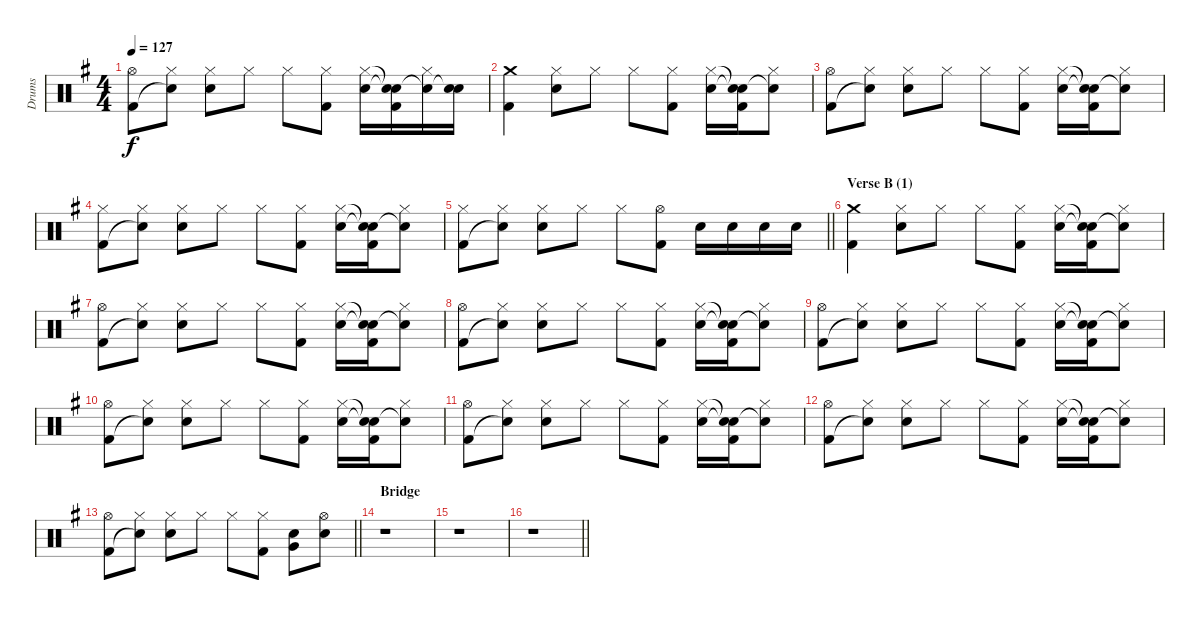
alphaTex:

\track ("Drums" "Drums") {instrument percussion}
\staff {score}
\articulation defaults
\ts (4 4)
\tempo 127
\clef neutral
\ks eminor
("Hi-Hat (open)" "Kick (hit) 2").8{dy f} ("Hi-Hat (closed)" "Snare (hit)"{t}).8 ("Hi-Hat (closed)" "Electric Snare (hit)").8 "Hi-Hat (closed)".8 "Hi-Hat (closed)".8 ("Hi-Hat (closed)" "Kick (hit) 2").8 ("Hi-Hat (closed)" "Electric Snare (hit)").16 ("Snare (hit)"{t} "Snare (hit)"{t} "Kick (hit) 2").16 ("Hi-Hat (closed)" "Snare (hit)"{t}).16 ("Electric Snare (hit)" "Snare (hit)"{t}).16 |
("Crash medium (hit)" "Kick (hit) 2").4 ("Hi-Hat (closed)" "Electric Snare (hit)").8 "Hi-Hat (closed)".8 "Hi-Hat (closed)".8 ("Hi-Hat (closed)" "Kick (hit) 2").8 ("Hi-Hat (closed)" "Electric Snare (hit)").16 ("Snare (hit)"{t} "Snare (hit)"{t} "Kick (hit) 2").16 ("Hi-Hat (closed)" "Snare (hit)"{t}).8 |
("Hi-Hat (open)" "Kick (hit) 2").8 ("Hi-Hat (closed)" "Snare (hit)"{t}).8 ("Hi-Hat (closed)" "Electric Snare (hit)").8 "Hi-Hat (closed)".8 "Hi-Hat (closed)".8 ("Hi-Hat (closed)" "Kick (hit) 2").8 ("Hi-Hat (closed)" "Electric Snare (hit)").16 ("Snare (hit)"{t} "Snare (hit)"{t} "Kick (hit) 2").16 ("Hi-Hat (closed)" "Snare (hit)"{t}).8 |
("Hi-Hat (closed)" "Kick (hit) 2").8 ("Hi-Hat (closed)" "Snare (hit)"{t}).8 ("Hi-Hat (closed)" "Electric Snare (hit)").8 "Hi-Hat (closed)".8 "Hi-Hat (closed)".8 ("Hi-Hat (closed)" "Kick (hit) 2").8 ("Hi-Hat (closed)" "Electric Snare (hit)").16 ("Snare (hit)"{t} "Snare (hit)"{t} "Kick (hit) 2").16 ("Hi-Hat (closed)" "Snare (hit)"{t}).8 |
\barLineRight lightlight
("Hi-Hat (closed)" "Kick (hit) 2").8 ("Hi-Hat (closed)" "Snare (hit)"{t}).8 ("Hi-Hat (closed)" "Electric Snare (hit)").8 "Hi-Hat (closed)".8 "Hi-Hat (closed)".8 ("Hi-Hat (open)" "Kick (hit) 2").8 "Electric Snare (hit)".16 "Electric Snare (hit)".16 "Electric Snare (hit)".16 "Electric Snare (hit)".16 |
\section ("" "Verse B (1)")
("Crash medium (hit)" "Kick (hit) 2").4 ("Hi-Hat (closed)" "Electric Snare (hit)").8 "Hi-Hat (closed)".8 "Hi-Hat (closed)".8 ("Hi-Hat (closed)" "Kick (hit) 2").8 ("Hi-Hat (closed)" "Electric Snare (hit)").16 ("Snare (hit)"{t} "Snare (hit)"{t} "Kick (hit) 2").16 ("Hi-Hat (closed)" "Snare (hit)"{t}).8 |
("Hi-Hat (open)" "Kick (hit) 2").8 ("Hi-Hat (closed)" "Snare (hit)"{t}).8 ("Hi-Hat (closed)" "Electric Snare (hit)").8 "Hi-Hat (closed)".8 "Hi-Hat (closed)".8 ("Hi-Hat (closed)" "Kick (hit) 2").8 ("Hi-Hat (closed)" "Electric Snare (hit)").16 ("Snare (hit)"{t} "Snare (hit)"{t} "Kick (hit) 2").16 ("Hi-Hat (closed)" "Snare (hit)"{t}).8 |
("Hi-Hat (open)" "Kick (hit) 2").8 ("Hi-Hat (closed)" "Snare (hit)"{t}).8 ("Hi-Hat (closed)" "Electric Snare (hit)").8 "Hi-Hat (closed)".8 "Hi-Hat (closed)".8 ("Hi-Hat (closed)" "Kick (hit) 2").8 ("Hi-Hat (closed)" "Electric Snare (hit)").16 ("Snare (hit)"{t} "Snare (hit)"{t} "Kick (hit) 2").16 ("Hi-Hat (closed)" "Snare (hit)"{t}).8 |
("Hi-Hat (open)" "Kick (hit) 2").8 ("Hi-Hat (closed)" "Snare (hit)"{t}).8 ("Hi-Hat (closed)" "Electric Snare (hit)").8 "Hi-Hat (closed)".8 "Hi-Hat (closed)".8 ("Hi-Hat (closed)" "Kick (hit) 2").8 ("Hi-Hat (closed)" "Electric Snare (hit)").16 ("Snare (hit)"{t} "Snare (hit)"{t} "Kick (hit) 2").16 ("Hi-Hat (closed)" "Snare (hit)"{t}).8 |
("Hi-Hat (open)" "Kick (hit) 2").8 ("Hi-Hat (closed)" "Snare (hit)"{t}).8 ("Hi-Hat (closed)" "Electric Snare (hit)").8 "Hi-Hat (closed)".8 "Hi-Hat (closed)".8 ("Hi-Hat (closed)" "Kick (hit) 2").8 ("Hi-Hat (closed)" "Electric Snare (hit)").16 ("Snare (hit)"{t} "Snare (hit)"{t} "Kick (hit) 2").16 ("Hi-Hat (closed)" "Snare (hit)"{t}).8 |
("Hi-Hat (open)" "Kick (hit) 2").8 ("Hi-Hat (closed)" "Snare (hit)"{t}).8 ("Hi-Hat (closed)" "Electric Snare (hit)").8 "Hi-Hat (closed)".8 "Hi-Hat (closed)".8 ("Hi-Hat (closed)" "Kick (hit) 2").8 ("Hi-Hat (closed)" "Electric Snare (hit)").16 ("Snare (hit)"{t} "Snare (hit)"{t} "Kick (hit) 2").16 ("Hi-Hat (closed)" "Snare (hit)"{t}).8 |
("Hi-Hat (open)" "Kick (hit) 2").8 ("Hi-Hat (closed)" "Snare (hit)"{t}).8 ("Hi-Hat (closed)" "Electric Snare (hit)").8 "Hi-Hat (closed)".8 "Hi-Hat (closed)".8 ("Hi-Hat (closed)" "Kick (hit) 2").8 ("Hi-Hat (closed)" "Electric Snare (hit)").16 ("Snare (hit)"{t} "Snare (hit)"{t} "Kick (hit) 2").16 ("Hi-Hat (closed)" "Snare (hit)"{t}).8 |
\barLineRight lightlight
("Hi-Hat (open)" "Kick (hit) 2").8 ("Hi-Hat (closed)" "Snare (hit)"{t}).8 ("Hi-Hat (closed)" "Electric Snare (hit)").8 "Hi-Hat (closed)".8 "Hi-Hat (closed)".8 ("Hi-Hat (closed)" "Kick (hit) 2").8 ("Electric Snare (hit)" "Very Low Tom (hit)").8 ("Hi-Hat (open)" "Electric Snare (hit)").8 |
\section ("" "Bridge")
r.1 |
r.1 |
\barLineRight lightlight
r.1
